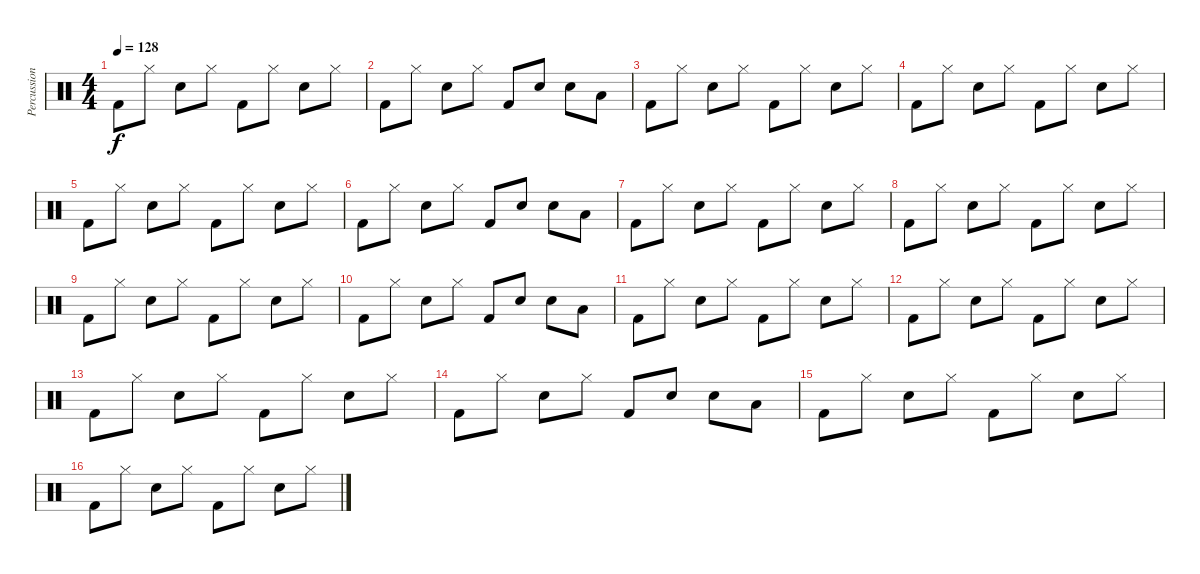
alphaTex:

\track ("Percussions" "Percussion") {instrument percussion}
\staff {score}
\articulation defaults
\ts (4 4)
\tempo 128
\clef neutral
\ks c "Kick (hit) 2".8{dy f} "Hi-Hat (closed)".8 "Electric Snare (hit)".8 "Hi-Hat (closed)".8 "Kick (hit) 2".8 "Hi-Hat (closed)".8 "Electric Snare (hit)".8 "Hi-Hat (closed)".8
|
"Kick (hit) 2".8 "Hi-Hat (closed)".8 "Electric Snare (hit)".8 "Hi-Hat (closed)".8 "Kick (hit) 2".8 "Electric Snare (hit)".8 "Electric Snare (hit)".8 "Low Tom (hit)".8 |
"Kick (hit) 2".8 "Hi-Hat (closed)".8 "Electric Snare (hit)".8 "Hi-Hat (closed)".8 "Kick (hit) 2".8 "Hi-Hat (closed)".8 "Electric Snare (hit)".8 "Hi-Hat (closed)".8 |
"Kick (hit) 2".8 "Hi-Hat (closed)".8 "Electric Snare (hit)".8 "Hi-Hat (closed)".8 "Kick (hit) 2".8 "Hi-Hat (closed)".8 "Electric Snare (hit)".8 "Hi-Hat (closed)".8 |
"Kick (hit) 2".8 "Hi-Hat (closed)".8 "Electric Snare (hit)".8 "Hi-Hat (closed)".8 "Kick (hit) 2".8 "Hi-Hat (closed)".8 "Electric Snare (hit)".8 "Hi-Hat (closed)".8 |
"Kick (hit) 2".8 "Hi-Hat (closed)".8 "Electric Snare (hit)".8 "Hi-Hat (closed)".8 "Kick (hit) 2".8 "Electric Snare (hit)".8 "Electric Snare (hit)".8 "Low Tom (hit)".8 |
"Kick (hit) 2".8 "Hi-Hat (closed)".8 "Electric Snare (hit)".8 "Hi-Hat (closed)".8 "Kick (hit) 2".8 "Hi-Hat (closed)".8 "Electric Snare (hit)".8 "Hi-Hat (closed)".8 |
"Kick (hit) 2".8 "Hi-Hat (closed)".8 "Electric Snare (hit)".8 "Hi-Hat (closed)".8 "Kick (hit) 2".8 "Hi-Hat (closed)".8 "Electric Snare (hit)".8 "Hi-Hat (closed)".8 |
"Kick (hit) 2".8 "Hi-Hat (closed)".8 "Electric Snare (hit)".8 "Hi-Hat (closed)".8 "Kick (hit) 2".8 "Hi-Hat (closed)".8 "Electric Snare (hit)".8 "Hi-Hat (closed)".8 |
"Kick (hit) 2".8 "Hi-Hat (closed)".8 "Electric Snare (hit)".8 "Hi-Hat (closed)".8 "Kick (hit) 2".8 "Electric Snare (hit)".8 "Electric Snare (hit)".8 "Low Tom (hit)".8 |
"Kick (hit) 2".8 "Hi-Hat (closed)".8 "Electric Snare (hit)".8 "Hi-Hat (closed)".8 "Kick (hit) 2".8 "Hi-Hat (closed)".8 "Electric Snare (hit)".8 "Hi-Hat (closed)".8 |
"Kick (hit) 2".8 "Hi-Hat (closed)".8 "Electric Snare (hit)".8 "Hi-Hat (closed)".8 "Kick (hit) 2".8 "Hi-Hat (closed)".8 "Electric Snare (hit)".8 "Hi-Hat (closed)".8 |
"Kick (hit) 2".8 "Hi-Hat (closed)".8 "Electric Snare (hit)".8 "Hi-Hat (closed)".8 "Kick (hit) 2".8 "Hi-Hat (closed)".8 "Electric Snare (hit)".8 "Hi-Hat (closed)".8 |
"Kick (hit) 2".8 "Hi-Hat (closed)".8 "Electric Snare (hit)".8 "Hi-Hat (closed)".8 "Kick (hit) 2".8 "Electric Snare (hit)".8 "Electric Snare (hit)".8 "Low Tom (hit)".8 |
"Kick (hit) 2".8 "Hi-Hat (closed)".8 "Electric Snare (hit)".8 "Hi-Hat (closed)".8 "Kick (hit) 2".8 "Hi-Hat (closed)".8 "Electric Snare (hit)".8 "Hi-Hat (closed)".8 |
"Kick (hit) 2".8 "Hi-Hat (closed)".8 "Electric Snare (hit)".8 "Hi-Hat (closed)".8 "Kick (hit) 2".8 "Hi-Hat (closed)".8 "Electric Snare (hit)".8 "Hi-Hat (closed)".8
